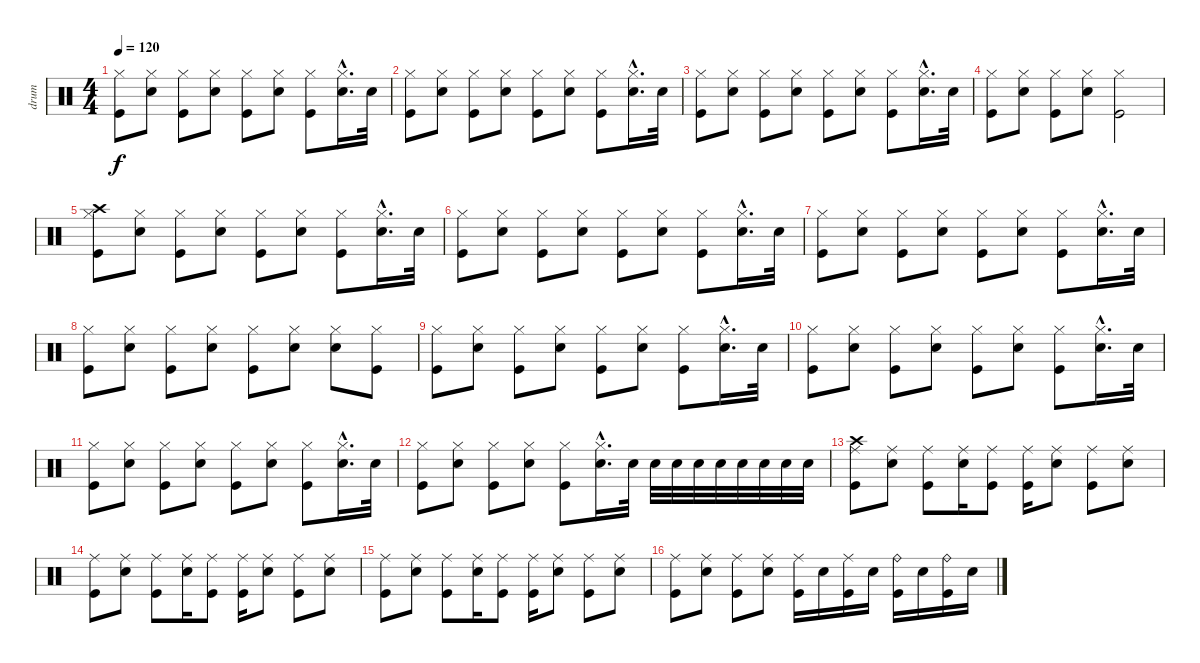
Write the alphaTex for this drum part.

\track ("drum " "drum ") {instrument percussion}
\staff {score}
\articulation defaults
\ts (4 4)
\tempo 120
\clef neutral
\ks c
("Hi-Hat (closed)" "Kick (hit)").8{dy f} ("Hi-Hat (closed)" "Snare (hit) 2").8 ("Hi-Hat (closed)" "Kick (hit)").8 ("Hi-Hat (closed)" "Snare (hit) 2").8 ("Hi-Hat (closed)" "Kick (hit)").8 ("Hi-Hat (closed)" "Snare (hit) 2").8 ("Hi-Hat (closed)" "Kick (hit)").8 ("Hi-Hat (closed)"{hac} "Snare (hit) 2"{hac}).16{d} "Snare (hit) 2".32 |
("Hi-Hat (closed)" "Kick (hit)").8 ("Hi-Hat (closed)" "Snare (hit) 2").8 ("Hi-Hat (closed)" "Kick (hit)").8 ("Hi-Hat (closed)" "Snare (hit) 2").8 ("Hi-Hat (closed)" "Kick (hit)").8 ("Hi-Hat (closed)" "Snare (hit) 2").8 ("Hi-Hat (closed)" "Kick (hit)").8 ("Hi-Hat (closed)"{hac} "Snare (hit) 2"{hac}).16{d} "Snare (hit) 2".32 |
("Hi-Hat (closed)" "Kick (hit)").8 ("Hi-Hat (closed)" "Snare (hit) 2").8 ("Hi-Hat (closed)" "Kick (hit)").8 ("Hi-Hat (closed)" "Snare (hit) 2").8 ("Hi-Hat (closed)" "Kick (hit)").8 ("Hi-Hat (closed)" "Snare (hit) 2").8 ("Hi-Hat (closed)" "Kick (hit)").8 ("Hi-Hat (closed)"{hac} "Snare (hit) 2"{hac}).16{d} "Snare (hit) 2".32 |
("Hi-Hat (closed)" "Kick (hit)").8 ("Hi-Hat (closed)" "Snare (hit) 2").8 ("Hi-Hat (closed)" "Kick (hit)").8 ("Hi-Hat (closed)" "Snare (hit) 2").8 ("Hi-Hat (closed)" "Kick (hit)").2 |
("Crash high (hit)" "Hi-Hat (closed)" "Kick (hit)").8 ("Hi-Hat (closed)" "Snare (hit) 2").8 ("Hi-Hat (closed)" "Kick (hit)").8 ("Hi-Hat (closed)" "Snare (hit) 2").8 ("Hi-Hat (closed)" "Kick (hit)").8 ("Hi-Hat (closed)" "Snare (hit) 2").8 ("Hi-Hat (closed)" "Kick (hit)").8 ("Hi-Hat (closed)"{hac} "Snare (hit) 2"{hac}).16{d} "Snare (hit) 2".32 |
("Hi-Hat (closed)" "Kick (hit)").8 ("Hi-Hat (closed)" "Snare (hit) 2").8 ("Hi-Hat (closed)" "Kick (hit)").8 ("Hi-Hat (closed)" "Snare (hit) 2").8 ("Hi-Hat (closed)" "Kick (hit)").8 ("Hi-Hat (closed)" "Snare (hit) 2").8 ("Hi-Hat (closed)" "Kick (hit)").8 ("Hi-Hat (closed)"{hac} "Snare (hit) 2"{hac}).16{d} "Snare (hit) 2".32 |
("Hi-Hat (closed)" "Kick (hit)").8 ("Hi-Hat (closed)" "Snare (hit) 2").8 ("Hi-Hat (closed)" "Kick (hit)").8 ("Hi-Hat (closed)" "Snare (hit) 2").8 ("Hi-Hat (closed)" "Kick (hit)").8 ("Hi-Hat (closed)" "Snare (hit) 2").8 ("Hi-Hat (closed)" "Kick (hit)").8 ("Hi-Hat (closed)"{hac} "Snare (hit) 2"{hac}).16{d} "Snare (hit) 2".32 |
("Hi-Hat (closed)" "Kick (hit)").8 ("Hi-Hat (closed)" "Snare (hit) 2").8 ("Hi-Hat (closed)" "Kick (hit)").8 ("Hi-Hat (closed)" "Snare (hit) 2").8 ("Hi-Hat (closed)" "Kick (hit)").8 ("Hi-Hat (closed)" "Snare (hit) 2").8 ("Hi-Hat (closed)" "Snare (hit) 2").8 ("Hi-Hat (closed)" "Kick (hit)").8 |
("Hi-Hat (closed)" "Kick (hit)").8 ("Hi-Hat (closed)" "Snare (hit) 2").8 ("Hi-Hat (closed)" "Kick (hit)").8 ("Hi-Hat (closed)" "Snare (hit) 2").8 ("Hi-Hat (closed)" "Kick (hit)").8 ("Hi-Hat (closed)" "Snare (hit) 2").8 ("Hi-Hat (closed)" "Kick (hit)").8 ("Hi-Hat (closed)"{hac} "Snare (hit) 2"{hac}).16{d} "Snare (hit) 2".32 |
("Hi-Hat (closed)" "Kick (hit)").8 ("Hi-Hat (closed)" "Snare (hit) 2").8 ("Hi-Hat (closed)" "Kick (hit)").8 ("Hi-Hat (closed)" "Snare (hit) 2").8 ("Hi-Hat (closed)" "Kick (hit)").8 ("Hi-Hat (closed)" "Snare (hit) 2").8 ("Hi-Hat (closed)" "Kick (hit)").8 ("Hi-Hat (closed)"{hac} "Snare (hit) 2"{hac}).16{d} "Snare (hit) 2".32 |
("Hi-Hat (closed)" "Kick (hit)").8 ("Hi-Hat (closed)" "Snare (hit) 2").8 ("Hi-Hat (closed)" "Kick (hit)").8 ("Hi-Hat (closed)" "Snare (hit) 2").8 ("Hi-Hat (closed)" "Kick (hit)").8 ("Hi-Hat (closed)" "Snare (hit) 2").8 ("Hi-Hat (closed)" "Kick (hit)").8 ("Hi-Hat (closed)"{hac} "Snare (hit) 2"{hac}).16{d} "Snare (hit) 2".32 |
("Hi-Hat (closed)" "Kick (hit)").8 ("Hi-Hat (closed)" "Snare (hit) 2").8 ("Hi-Hat (closed)" "Kick (hit)").8 ("Hi-Hat (closed)" "Snare (hit) 2").8 ("Hi-Hat (closed)" "Kick (hit)").8 ("Hi-Hat (closed)"{hac} "Snare (hit) 2"{hac}).16{d} "Snare (hit) 2".32 "Snare (hit) 2".32 "Snare (hit) 2".32 "Snare (hit) 2".32 "Snare (hit) 2".32 "Snare (hit) 2".32 "Snare (hit) 2".32 "Snare (hit) 2".32 "Snare (hit) 2".32 |
("Crash high (hit)" "Ride (middle)" "Kick (hit)").8 ("Ride (middle)" "Snare (hit) 2").8 ("Ride (middle)" "Kick (hit)").8 ("Ride (middle)" "Snare (hit) 2").16 ("Ride (middle)" "Kick (hit)").8 ("Ride (middle)" "Kick (hit)").16 ("Ride (middle)" "Snare (hit) 2").8 ("Ride (middle)" "Kick (hit)").8 ("Ride (middle)" "Snare (hit) 2").8 |
("Ride (middle)" "Kick (hit)").8 ("Ride (middle)" "Snare (hit) 2").8 ("Ride (middle)" "Kick (hit)").8 ("Ride (middle)" "Snare (hit) 2").16 ("Ride (middle)" "Kick (hit)").8 ("Ride (middle)" "Kick (hit)").16 ("Ride (middle)" "Snare (hit) 2").8 ("Ride (middle)" "Kick (hit)").8 ("Ride (middle)" "Snare (hit) 2").8 |
("Ride (middle)" "Kick (hit)").8 ("Ride (middle)" "Snare (hit) 2").8 ("Ride (middle)" "Kick (hit)").8 ("Ride (middle)" "Snare (hit) 2").16 ("Ride (middle)" "Kick (hit)").8 ("Ride (middle)" "Kick (hit)").16 ("Ride (middle)" "Snare (hit) 2").8 ("Ride (middle)" "Kick (hit)").8 ("Ride (middle)" "Snare (hit) 2").8 |
("Ride (middle)" "Kick (hit)").8 ("Ride (middle)" "Snare (hit) 2").8 ("Ride (middle)" "Kick (hit)").8 ("Ride (middle)" "Snare (hit) 2").8 ("Ride (middle)" "Kick (hit)").16 "Snare (hit) 2".16 ("Ride (middle)" "Kick (hit)").16 "Snare (hit) 2".16 ("Ride (bell)" "Kick (hit)").16 "Snare (hit) 2".16 ("Ride (bell)" "Kick (hit)").16 "Snare (hit) 2".16
